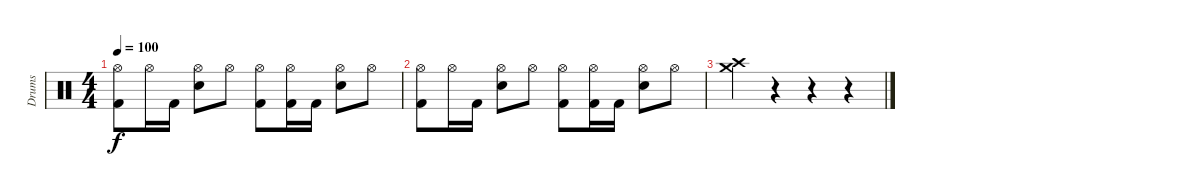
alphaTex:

\track ("Drums" "Drums") {instrument percussion}
\staff {score}
\articulation defaults
\ts (4 4)
\tempo 100
\clef neutral
\ks c
("Hi-Hat (open)" "Kick (hit) 2").8{dy f} "Hi-Hat (open)".16 "Kick (hit) 2".16 ("Hi-Hat (open)" "Snare (hit) 2").8 "Hi-Hat (open)".8 ("Hi-Hat (open)" "Kick (hit) 2").8 ("Hi-Hat (open)" "Kick (hit) 2").16 "Kick (hit) 2".16 ("Hi-Hat (open)" "Snare (hit) 2").8 "Hi-Hat (open)".8 |
("Hi-Hat (open)" "Kick (hit) 2").8 "Hi-Hat (open)".16 "Kick (hit) 2".16 ("Hi-Hat (open)" "Snare (hit) 2").8 "Hi-Hat (open)".8 ("Hi-Hat (open)" "Kick (hit) 2").8 ("Hi-Hat (open)" "Kick (hit) 2").16 "Kick (hit) 2".16 ("Hi-Hat (open)" "Snare (hit) 2").8 "Hi-Hat (open)".8 |
("Crash high (hit)" "Crash medium (hit)").4 r.4 r.4 r.4
